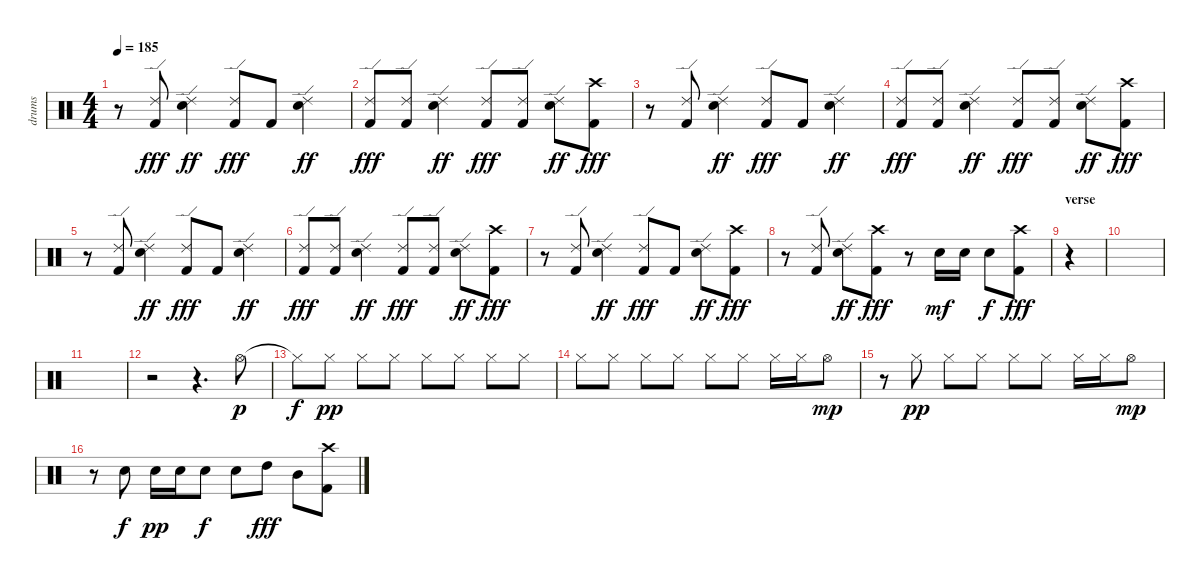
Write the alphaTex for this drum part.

\track ("drums" "drums") {instrument percussion}
\staff {score}
\articulation defaults
\ts (4 4)
\tempo 185
\clef neutral
\ks c
r.8{dy fff} ("Ride (edge) 2" "Kick (hit) 2").8 ("Ride (edge) 2" "Snare (hit) 2").4{dy ff} ("Ride (edge) 2" "Kick (hit) 2").8{dy fff} "Kick (hit) 2".8 ("Ride (edge) 2" "Snare (hit) 2").4{dy ff} |
("Ride (edge) 2" "Kick (hit) 2").8{dy fff} ("Ride (edge) 2" "Kick (hit) 2").8 ("Ride (edge) 2" "Snare (hit) 2").4{dy ff} ("Ride (edge) 2" "Kick (hit) 2").8{dy fff} ("Ride (edge) 2" "Kick (hit) 2").8 ("Ride (edge) 2" "Snare (hit) 2").8{dy ff} ("Crash high (hit)" "Kick (hit) 2").8{dy fff} |
r.8 ("Ride (edge) 2" "Kick (hit) 2").8 ("Ride (edge) 2" "Snare (hit) 2").4{dy ff} ("Ride (edge) 2" "Kick (hit) 2").8{dy fff} "Kick (hit) 2".8 ("Ride (edge) 2" "Snare (hit) 2").4{dy ff} |
("Ride (edge) 2" "Kick (hit) 2").8{dy fff} ("Ride (edge) 2" "Kick (hit) 2").8 ("Ride (edge) 2" "Snare (hit) 2").4{dy ff} ("Ride (edge) 2" "Kick (hit) 2").8{dy fff} ("Ride (edge) 2" "Kick (hit) 2").8 ("Ride (edge) 2" "Snare (hit) 2").8{dy ff} ("Crash high (hit)" "Kick (hit) 2").8{dy fff} |
r.8 ("Ride (edge) 2" "Kick (hit) 2").8 ("Ride (edge) 2" "Snare (hit) 2").4{dy ff} ("Ride (edge) 2" "Kick (hit) 2").8{dy fff} "Kick (hit) 2".8 ("Ride (edge) 2" "Snare (hit) 2").4{dy ff} |
("Ride (edge) 2" "Kick (hit) 2").8{dy fff} ("Ride (edge) 2" "Kick (hit) 2").8 ("Ride (edge) 2" "Snare (hit) 2").4{dy ff} ("Ride (edge) 2" "Kick (hit) 2").8{dy fff} ("Ride (edge) 2" "Kick (hit) 2").8 ("Ride (edge) 2" "Snare (hit) 2").8{dy ff} ("Crash high (hit)" "Kick (hit) 2").8{dy fff} |
r.8 ("Ride (edge) 2" "Kick (hit) 2").8 ("Ride (edge) 2" "Snare (hit) 2").4{dy ff} ("Ride (edge) 2" "Kick (hit) 2").8{dy fff} "Kick (hit) 2".8 ("Ride (edge) 2" "Snare (hit) 2").8{dy ff} ("Crash high (hit)" "Kick (hit) 2").8{dy fff} |
r.8 ("Ride (edge) 2" "Kick (hit) 2").8 ("Ride (edge) 2" "Snare (hit) 2").8{dy ff} ("Crash high (hit)" "Kick (hit) 2").8{dy fff} r.8 "Snare (hit) 2".16{dy mf} "Snare (hit) 2".16 "Snare (hit) 2".8{dy f} ("Crash high (hit)" "Kick (hit) 2").8{dy fff} |
\section ("" "verse")
r.4 |
|
|
r.2 r.4{d} "Hi-Hat (open)".8{dy p} |
"Hi-Hat (closed)"{t}.8{dy f} "Hi-Hat (closed)".8{dy pp} "Hi-Hat (closed)".8 "Hi-Hat (closed)".8 "Hi-Hat (closed)".8 "Hi-Hat (closed)".8 "Hi-Hat (closed)".8 "Hi-Hat (closed)".8 |
"Hi-Hat (closed)".8 "Hi-Hat (closed)".8 "Hi-Hat (closed)".8 "Hi-Hat (closed)".8 "Hi-Hat (closed)".8 "Hi-Hat (closed)".8 "Hi-Hat (closed)".16 "Hi-Hat (closed)".16 "Hi-Hat (open)".8{dy mp} |
r.8 "Hi-Hat (closed)".8{dy pp} "Hi-Hat (closed)".8 "Hi-Hat (closed)".8 "Hi-Hat (closed)".8 "Hi-Hat (closed)".8 "Hi-Hat (closed)".16 "Hi-Hat (closed)".16 "Hi-Hat (open)".8{dy mp} |
r.8 "Snare (hit) 2".8{dy f} "Snare (hit) 2".16{dy pp} "Snare (hit) 2".16 "Snare (hit) 2".8{dy f} "Snare (hit) 2".8 "High Tom (hit)".8{dy fff} "Mid Tom (hit)".8 ("Crash high (hit)" "Kick (hit) 2").8
